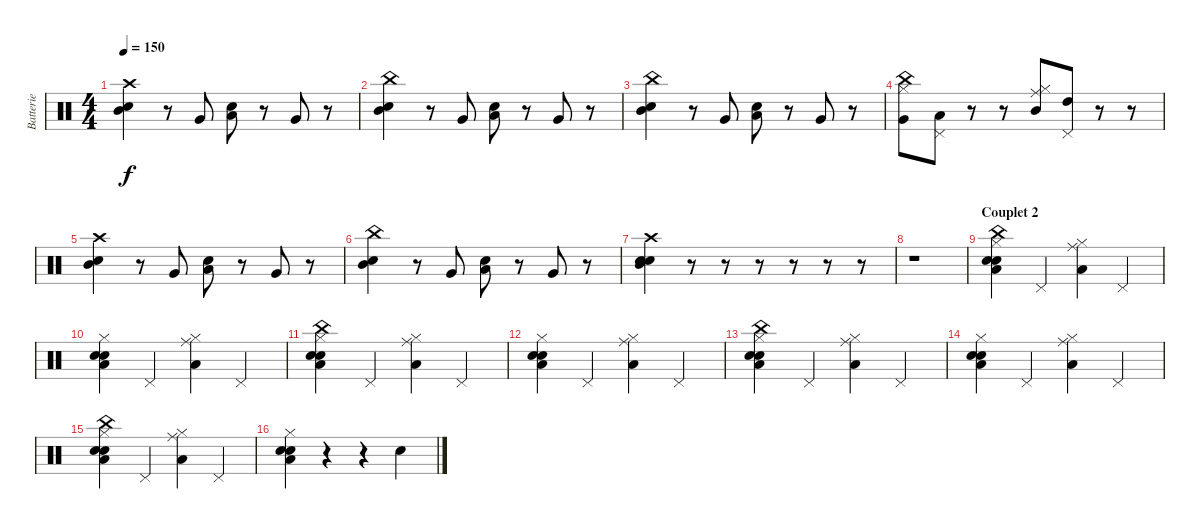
\track ("Batterie" "Batterie") {instrument percussion}
\staff {score}
\articulation defaults
\ts (4 4)
\tempo 150
\clef neutral
\ks c
("Mid Tom (hit)" "Electric Snare (hit)" "Crash high (hit)").4{dy f} r.8 "Very Low Tom (hit)".8 ("Low Tom (hit)" "Electric Snare (hit)").8 r.8 "Very Low Tom (hit)".8 r.8 |
("Mid Tom (hit)" "Electric Snare (hit)" "China (hit)").4 r.8 "Very Low Tom (hit)".8 ("Low Tom (hit)" "Electric Snare (hit)").8 r.8 "Very Low Tom (hit)".8 r.8 |
("Mid Tom (hit)" "Electric Snare (hit)" "China (hit)").4 r.8 "Very Low Tom (hit)".8 ("Low Tom (hit)" "Electric Snare (hit)").8 r.8 "Very Low Tom (hit)".8 r.8 |
("Hi-Hat (closed)" "Very Low Tom (hit)" "China (hit)").8 ("Pedal Hi-Hat (hit)" "Low Tom (hit)").8 r.8 r.8 ("Hi-Hat (closed)" "Mid Tom (hit)" "Ride (middle)").8 ("Pedal Hi-Hat (hit)" "High Tom (hit)").8 r.8 r.8 |
("Mid Tom (hit)" "Electric Snare (hit)" "Crash high (hit)").4 r.8 "Very Low Tom (hit)".8 ("Low Tom (hit)" "Electric Snare (hit)").8 r.8 "Very Low Tom (hit)".8 r.8 |
("Mid Tom (hit)" "Electric Snare (hit)" "China (hit)").4 r.8 "Very Low Tom (hit)".8 ("Low Tom (hit)" "Electric Snare (hit)").8 r.8 "Very Low Tom (hit)".8 r.8 |
("Mid Tom (hit)" "Electric Snare (hit)" "Crash high (hit)" "Snare (hit) 2").4 r.8 r.8 r.8 r.8 r.8 r.8 |
r.1 |
\section ("" "Couplet 2")
("Electric Snare (hit)" "Low Tom (hit)" "Hi-Hat (closed)" "Snare (hit) 2" "China (hit)").4 "Pedal Hi-Hat (hit)".4 ("Low Tom (hit)" "Hi-Hat (closed)" "Ride (middle)").4 "Pedal Hi-Hat (hit)".4 |
("Electric Snare (hit)" "Low Tom (hit)" "Hi-Hat (closed)" "Snare (hit) 2").4 "Pedal Hi-Hat (hit)".4 ("Low Tom (hit)" "Hi-Hat (closed)" "Ride (middle)").4 "Pedal Hi-Hat (hit)".4 |
("Electric Snare (hit)" "Low Tom (hit)" "Hi-Hat (closed)" "Snare (hit) 2" "China (hit)").4 "Pedal Hi-Hat (hit)".4 ("Low Tom (hit)" "Hi-Hat (closed)" "Ride (middle)").4 "Pedal Hi-Hat (hit)".4 |
("Electric Snare (hit)" "Low Tom (hit)" "Hi-Hat (closed)" "Snare (hit) 2").4 "Pedal Hi-Hat (hit)".4 ("Low Tom (hit)" "Hi-Hat (closed)" "Ride (middle)").4 "Pedal Hi-Hat (hit)".4 |
("Electric Snare (hit)" "Low Tom (hit)" "Hi-Hat (closed)" "Snare (hit) 2" "China (hit)").4 "Pedal Hi-Hat (hit)".4 ("Low Tom (hit)" "Hi-Hat (closed)" "Ride (middle)").4 "Pedal Hi-Hat (hit)".4 |
("Electric Snare (hit)" "Low Tom (hit)" "Hi-Hat (closed)" "Snare (hit) 2").4 "Pedal Hi-Hat (hit)".4 ("Low Tom (hit)" "Hi-Hat (closed)" "Ride (middle)").4 "Pedal Hi-Hat (hit)".4 |
("Electric Snare (hit)" "Low Tom (hit)" "Hi-Hat (closed)" "Snare (hit) 2" "China (hit)").4 "Pedal Hi-Hat (hit)".4 ("Low Tom (hit)" "Hi-Hat (closed)" "Ride (middle)").4 "Pedal Hi-Hat (hit)".4 |
("Electric Snare (hit)" "Low Tom (hit)" "Hi-Hat (closed)" "Snare (hit) 2").4 r.4 r.4 "Snare (hit) 2".4
